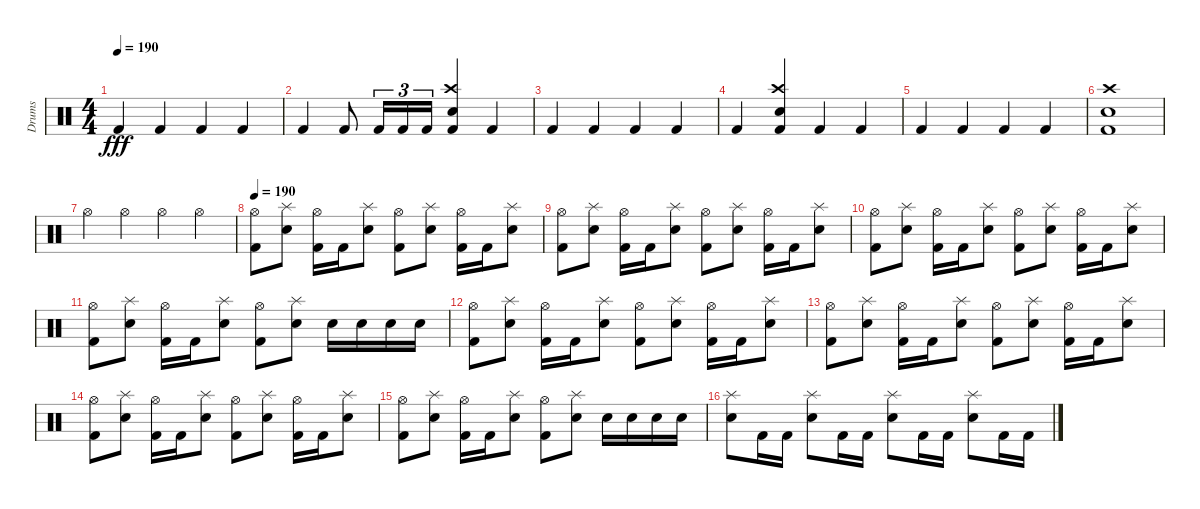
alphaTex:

\track ("Drums" "Drums") {instrument percussion}
\staff {score}
\articulation defaults
\ts (4 4)
\tempo 190
\clef neutral
\ks c "Kick (hit) 2".4{dy fff} "Kick (hit) 2".4 "Kick (hit) 2".4 "Kick (hit) 2".4
|
"Kick (hit) 2".4 "Kick (hit) 2".8 "Kick (hit) 2".16{tu (3 2)} "Kick (hit) 2".16{tu (3 2)} "Kick (hit) 2".16{tu (3 2)} ("Crash high (hit)" "Snare (hit) 2" "Kick (hit) 2").4 "Kick (hit) 2".4 |
"Kick (hit) 2".4 "Kick (hit) 2".4 "Kick (hit) 2".4 "Kick (hit) 2".4 |
"Kick (hit) 2".4 ("Crash high (hit)" "Snare (hit) 2" "Kick (hit) 2").4 "Kick (hit) 2".4 "Kick (hit) 2".4 |
"Kick (hit) 2".4 "Kick (hit) 2".4 "Kick (hit) 2".4 "Kick (hit) 2".4 |
("Crash high (hit)" "Snare (hit) 2" "Kick (hit) 2").1 |
"Hi-Hat (open)".4 "Hi-Hat (open)".4 "Hi-Hat (open)".4 "Hi-Hat (open)".4 |
\tempo 190
("Hi-Hat (open)" "Kick (hit) 2").8 ("Splash (hit)" "Snare (hit) 2").8 ("Hi-Hat (open)" "Kick (hit) 2").16 "Kick (hit) 2".16 ("Splash (hit)" "Snare (hit) 2").8 ("Hi-Hat (open)" "Kick (hit) 2").8 ("Splash (hit)" "Snare (hit) 2").8 ("Hi-Hat (open)" "Kick (hit) 2").16 "Kick (hit) 2".16 ("Splash (hit)" "Snare (hit) 2").8 |
("Hi-Hat (open)" "Kick (hit) 2").8 ("Splash (hit)" "Snare (hit) 2").8 ("Hi-Hat (open)" "Kick (hit) 2").16 "Kick (hit) 2".16 ("Splash (hit)" "Snare (hit) 2").8 ("Hi-Hat (open)" "Kick (hit) 2").8 ("Splash (hit)" "Snare (hit) 2").8 ("Hi-Hat (open)" "Kick (hit) 2").16 "Kick (hit) 2".16 ("Splash (hit)" "Snare (hit) 2").8 |
("Hi-Hat (open)" "Kick (hit) 2").8 ("Splash (hit)" "Snare (hit) 2").8 ("Hi-Hat (open)" "Kick (hit) 2").16 "Kick (hit) 2".16 ("Splash (hit)" "Snare (hit) 2").8 ("Hi-Hat (open)" "Kick (hit) 2").8 ("Splash (hit)" "Snare (hit) 2").8 ("Hi-Hat (open)" "Kick (hit) 2").16 "Kick (hit) 2".16 ("Splash (hit)" "Snare (hit) 2").8 |
("Hi-Hat (open)" "Kick (hit) 2").8 ("Splash (hit)" "Snare (hit) 2").8 ("Hi-Hat (open)" "Kick (hit) 2").16 "Kick (hit) 2".16 ("Splash (hit)" "Snare (hit) 2").8 ("Hi-Hat (open)" "Kick (hit) 2").8 ("Splash (hit)" "Snare (hit) 2").8 "Snare (hit) 2".16 "Snare (hit) 2".16 "Snare (hit) 2".16 "Snare (hit) 2".16 |
("Hi-Hat (open)" "Kick (hit) 2").8 ("Splash (hit)" "Snare (hit) 2").8 ("Hi-Hat (open)" "Kick (hit) 2").16 "Kick (hit) 2".16 ("Splash (hit)" "Snare (hit) 2").8 ("Hi-Hat (open)" "Kick (hit) 2").8 ("Splash (hit)" "Snare (hit) 2").8 ("Hi-Hat (open)" "Kick (hit) 2").16 "Kick (hit) 2".16 ("Splash (hit)" "Snare (hit) 2").8 |
("Hi-Hat (open)" "Kick (hit) 2").8 ("Splash (hit)" "Snare (hit) 2").8 ("Hi-Hat (open)" "Kick (hit) 2").16 "Kick (hit) 2".16 ("Splash (hit)" "Snare (hit) 2").8 ("Hi-Hat (open)" "Kick (hit) 2").8 ("Splash (hit)" "Snare (hit) 2").8 ("Hi-Hat (open)" "Kick (hit) 2").16 "Kick (hit) 2".16 ("Splash (hit)" "Snare (hit) 2").8 |
("Hi-Hat (open)" "Kick (hit) 2").8 ("Splash (hit)" "Snare (hit) 2").8 ("Hi-Hat (open)" "Kick (hit) 2").16 "Kick (hit) 2".16 ("Splash (hit)" "Snare (hit) 2").8 ("Hi-Hat (open)" "Kick (hit) 2").8 ("Splash (hit)" "Snare (hit) 2").8 ("Hi-Hat (open)" "Kick (hit) 2").16 "Kick (hit) 2".16 ("Splash (hit)" "Snare (hit) 2").8 |
("Hi-Hat (open)" "Kick (hit) 2").8 ("Splash (hit)" "Snare (hit) 2").8 ("Hi-Hat (open)" "Kick (hit) 2").16 "Kick (hit) 2".16 ("Splash (hit)" "Snare (hit) 2").8 ("Hi-Hat (open)" "Kick (hit) 2").8 ("Splash (hit)" "Snare (hit) 2").8 "Snare (hit) 2".16 "Snare (hit) 2".16 "Snare (hit) 2".16 "Snare (hit) 2".16 |
("Splash (hit)" "Snare (hit) 2").8 "Kick (hit) 2".16 "Kick (hit) 2".16 ("Splash (hit)" "Snare (hit) 2").8 "Kick (hit) 2".16 "Kick (hit) 2".16 ("Splash (hit)" "Snare (hit) 2").8 "Kick (hit) 2".16 "Kick (hit) 2".16 ("Splash (hit)" "Snare (hit) 2").8 "Kick (hit) 2".16 "Kick (hit) 2".16
